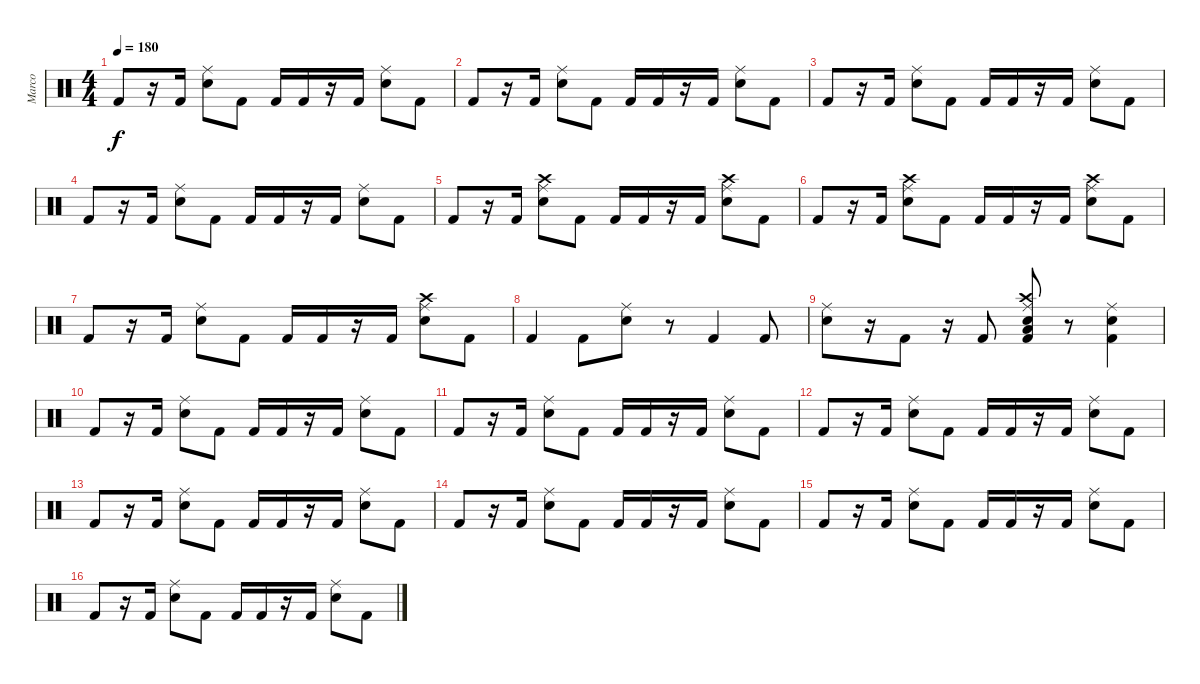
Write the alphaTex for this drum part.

\track ("Marco" "Marco") {instrument percussion}
\staff {score}
\articulation defaults
\ts (4 4)
\tempo 180
\clef neutral
\ks c "Kick (hit) 2".8{dy f}
r.16 "Kick (hit) 2".16 ("Electric Snare (hit)" "Ride (middle)").8 "Kick (hit) 2".8 "Kick (hit) 2".16 "Kick (hit) 2".16 r.16 "Kick (hit) 2".16 ("Electric Snare (hit)" "Ride (middle)").8 "Kick (hit) 2".8 |
"Kick (hit) 2".8 r.16 "Kick (hit) 2".16 ("Electric Snare (hit)" "Ride (middle)").8 "Kick (hit) 2".8 "Kick (hit) 2".16 "Kick (hit) 2".16 r.16 "Kick (hit) 2".16 ("Electric Snare (hit)" "Ride (middle)").8 "Kick (hit) 2".8 |
"Kick (hit) 2".8 r.16 "Kick (hit) 2".16 ("Electric Snare (hit)" "Ride (middle)").8 "Kick (hit) 2".8 "Kick (hit) 2".16 "Kick (hit) 2".16 r.16 "Kick (hit) 2".16 ("Electric Snare (hit)" "Ride (middle)").8 "Kick (hit) 2".8 |
"Kick (hit) 2".8 r.16 "Kick (hit) 2".16 ("Electric Snare (hit)" "Ride (middle)").8 "Kick (hit) 2".8 "Kick (hit) 2".16 "Kick (hit) 2".16 r.16 "Kick (hit) 2".16 ("Electric Snare (hit)" "Ride (middle)").8 "Kick (hit) 2".8 |
"Kick (hit) 2".8 r.16 "Kick (hit) 2".16 ("Electric Snare (hit)" "Ride (middle)" "Crash high (hit)").8 "Kick (hit) 2".8 "Kick (hit) 2".16 "Kick (hit) 2".16 r.16 "Kick (hit) 2".16 ("Electric Snare (hit)" "Ride (middle)" "Crash high (hit)").8 "Kick (hit) 2".8 |
"Kick (hit) 2".8 r.16 "Kick (hit) 2".16 ("Electric Snare (hit)" "Ride (middle)" "Crash high (hit)").8 "Kick (hit) 2".8 "Kick (hit) 2".16 "Kick (hit) 2".16 r.16 "Kick (hit) 2".16 ("Electric Snare (hit)" "Ride (middle)" "Crash high (hit)").8 "Kick (hit) 2".8 |
"Kick (hit) 2".8 r.16 "Kick (hit) 2".16 ("Electric Snare (hit)" "Ride (middle)").8 "Kick (hit) 2".8 "Kick (hit) 2".16 "Kick (hit) 2".16 r.16 "Kick (hit) 2".16 ("Electric Snare (hit)" "Ride (middle)" "Crash high (hit)").8 "Kick (hit) 2".8 |
"Kick (hit) 2".4 "Kick (hit) 2".8 ("Electric Snare (hit)" "Ride (middle)").8 r.8 "Kick (hit) 2".4 "Kick (hit) 2".8 |
("Electric Snare (hit)" "Ride (middle)").8 r.16 "Kick (hit) 2".8 r.16 "Kick (hit) 2".8 ("Kick (hit) 2" "Ride (middle)" "Electric Snare (hit)" "Low Tom (hit)" "Crash high (hit)").8 r.8 ("Kick (hit) 2" "Electric Snare (hit)" "Ride (middle)").4 |
"Kick (hit) 2".8 r.16 "Kick (hit) 2".16 ("Electric Snare (hit)" "Ride (middle)").8 "Kick (hit) 2".8 "Kick (hit) 2".16 "Kick (hit) 2".16 r.16 "Kick (hit) 2".16 ("Electric Snare (hit)" "Ride (middle)").8 "Kick (hit) 2".8 |
"Kick (hit) 2".8 r.16 "Kick (hit) 2".16 ("Electric Snare (hit)" "Ride (middle)").8 "Kick (hit) 2".8 "Kick (hit) 2".16 "Kick (hit) 2".16 r.16 "Kick (hit) 2".16 ("Electric Snare (hit)" "Ride (middle)").8 "Kick (hit) 2".8 |
"Kick (hit) 2".8 r.16 "Kick (hit) 2".16 ("Electric Snare (hit)" "Ride (middle)").8 "Kick (hit) 2".8 "Kick (hit) 2".16 "Kick (hit) 2".16 r.16 "Kick (hit) 2".16 ("Electric Snare (hit)" "Ride (middle)").8 "Kick (hit) 2".8 |
"Kick (hit) 2".8 r.16 "Kick (hit) 2".16 ("Electric Snare (hit)" "Ride (middle)").8 "Kick (hit) 2".8 "Kick (hit) 2".16 "Kick (hit) 2".16 r.16 "Kick (hit) 2".16 ("Electric Snare (hit)" "Ride (middle)").8 "Kick (hit) 2".8 |
"Kick (hit) 2".8 r.16 "Kick (hit) 2".16 ("Electric Snare (hit)" "Ride (middle)").8 "Kick (hit) 2".8 "Kick (hit) 2".16 "Kick (hit) 2".16 r.16 "Kick (hit) 2".16 ("Electric Snare (hit)" "Ride (middle)").8 "Kick (hit) 2".8 |
"Kick (hit) 2".8 r.16 "Kick (hit) 2".16 ("Electric Snare (hit)" "Ride (middle)").8 "Kick (hit) 2".8 "Kick (hit) 2".16 "Kick (hit) 2".16 r.16 "Kick (hit) 2".16 ("Electric Snare (hit)" "Ride (middle)").8 "Kick (hit) 2".8 |
"Kick (hit) 2".8 r.16 "Kick (hit) 2".16 ("Electric Snare (hit)" "Ride (middle)").8 "Kick (hit) 2".8 "Kick (hit) 2".16 "Kick (hit) 2".16 r.16 "Kick (hit) 2".16 ("Electric Snare (hit)" "Ride (middle)").8 "Kick (hit) 2".8
